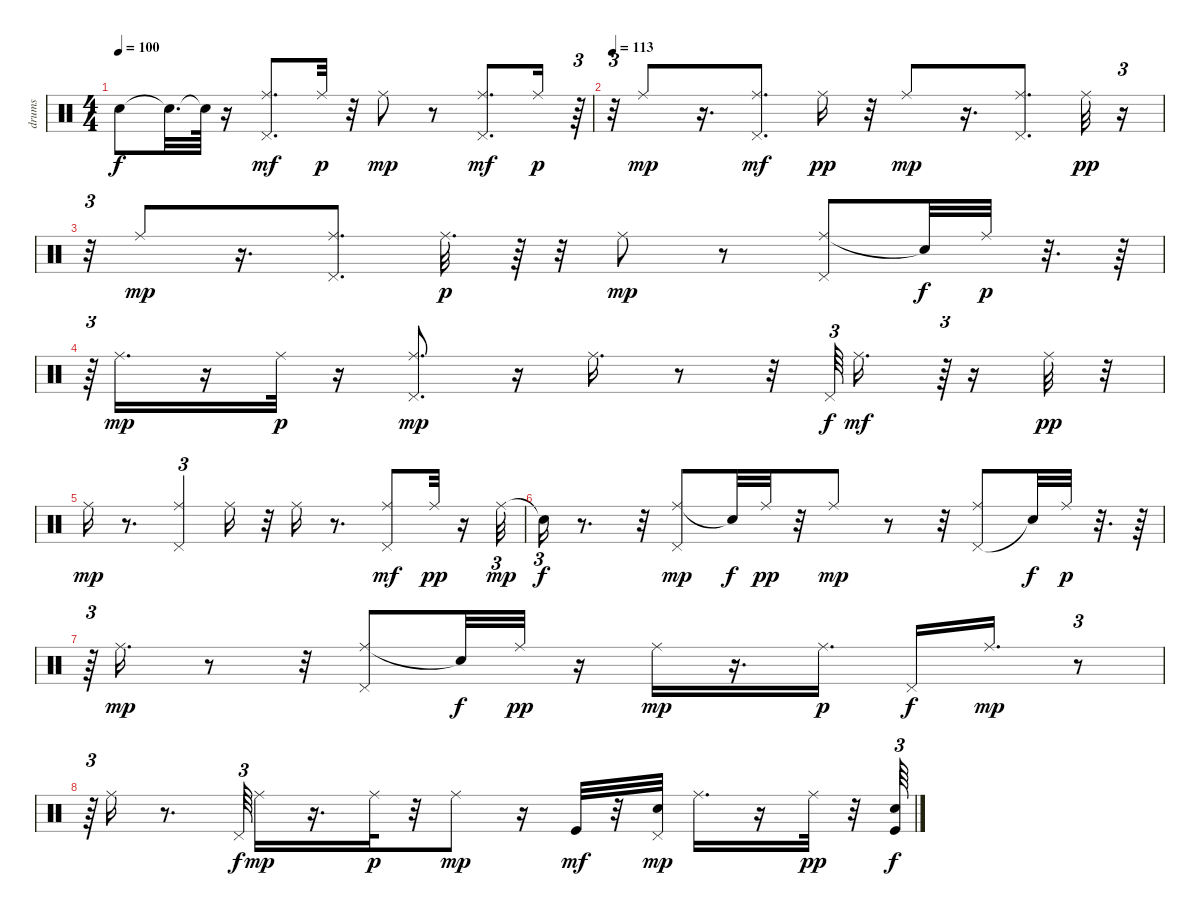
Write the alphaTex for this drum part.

\track ("drums" "drums") {instrument percussion}
\staff {score}
\articulation defaults
\ts (4 4)
\tempo 100
\clef neutral
\ks c "Snare (hit)"{t}.8{dy f} "Snare (hit)"{t}.32{d} "Snare (hit)"{t}.64
r.16 ("Pedal Hi-Hat (hit)" "Ride (middle)").8{d dy mf} "Ride (middle)".32{dy p} r.32 "Ride (middle)".8{dy mp} r.8 ("Pedal Hi-Hat (hit)" "Ride (middle)").8{d dy mf} "Ride (middle)".16{dy p} r.64{tu (3 2)} |
\tempo 113
r.32{tu (3 2)} "Ride (middle)".8{dy mp} r.16{d} ("Pedal Hi-Hat (hit)" "Ride (middle)").8{d dy mf} "Ride (middle)".16{dy pp} r.32 "Ride (middle)".8{dy mp} r.16{d} ("Ride (middle)" "Pedal Hi-Hat (hit)").8{d} "Ride (middle)".32{dy pp} r.16{tu (3 2)} |
r.32{tu (3 2)} "Ride (middle)".8{dy mp} r.16{d} ("Ride (middle)" "Pedal Hi-Hat (hit)").8{d} "Ride (middle)".32{d dy p} r.64 r.32 "Ride (middle)".8{dy mp} r.8 ("Ride (middle)" "Pedal Hi-Hat (hit)").8 "Snare (hit)"{t}.32{dy f} "Ride (middle)".32{dy p} r.32{d} r.64 |
r.64{tu (3 2)} "Ride (middle)".16{d dy mp} r.16 "Ride (middle)".32{dy p} r.16 ("Pedal Hi-Hat (hit)" "Ride (middle)").8{d dy mp} r.16 "Ride (middle)".16{d} r.8 r.32 "Pedal Hi-Hat (hit)".64{tu (3 2) dy f} "Ride (middle)".16{d dy mf} r.64{tu (3 2)} r.16 "Ride (middle)".32{dy pp} r.32 |
"Ride (middle)".16{dy mp} r.8{d} ("Pedal Hi-Hat (hit)" "Ride (middle)").4{tu (3 2)} "Ride (middle)".16 r.32 "Ride (middle)".16 r.8{d} ("Ride (middle)" "Pedal Hi-Hat (hit)").8{dy mf} "Ride (middle)".32{dy pp} r.16 "Ride (middle)".32{tu (3 2) dy mp} |
"Snare (hit)"{t}.16{tu (3 2) dy f} r.8{d} r.32 ("Ride (middle)" "Pedal Hi-Hat (hit)").8{dy mp} "Snare (hit)"{t}.32{dy f} "Ride (middle)".32{dy pp} r.32 "Ride (middle)".8{dy mp} r.8 r.32 ("Pedal Hi-Hat (hit)" "Ride (middle)").8 "Snare (hit)"{t}.32{dy f} "Ride (middle)".32{dy p} r.32{d} r.64 |
r.64{tu (3 2)} "Ride (middle)".16{d dy mp} r.8 r.32 ("Ride (middle)" "Pedal Hi-Hat (hit)").8 "Snare (hit)"{t}.32{dy f} "Ride (middle)".32{dy pp} r.16 "Ride (middle)".16{dy mp} r.16{d} "Ride (middle)".16{d dy p} "Pedal Hi-Hat (hit)".16{dy f} "Ride (middle)".16{d dy mp} r.8{tu (3 2)} |
r.64{tu (3 2)} "Ride (middle)".16 r.8{d} "Pedal Hi-Hat (hit)".64{tu (3 2) dy f} "Ride (middle)".16{dy mp} r.16{d} "Ride (middle)".32{dy p} r.32 "Ride (middle)".8{dy mp} r.16 "Kick (hit)".32{dy mf} r.32 ("Pedal Hi-Hat (hit)" "Electric Snare (hit)").32{dy mp} "Ride (middle)".16{d} r.16 "Ride (middle)".32{dy pp} r.32 ("Electric Snare (hit)" "Kick (hit)").64{tu (3 2) dy f}
